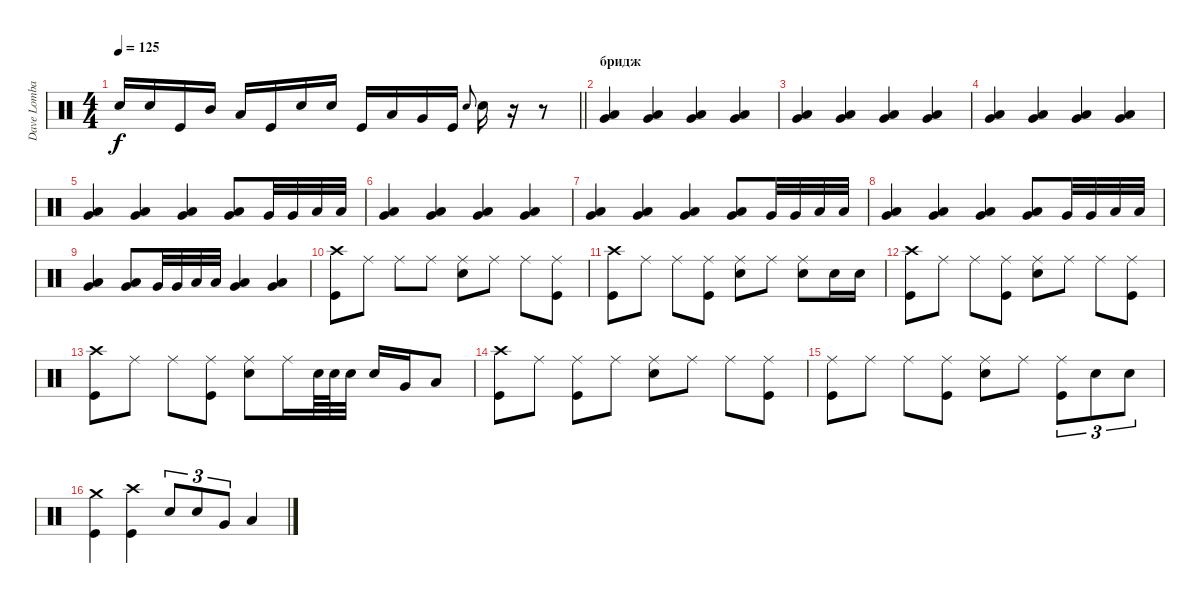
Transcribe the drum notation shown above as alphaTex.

\track ("Dave Lombardo" "Dave Lomba") {instrument percussion}
\staff {score}
\articulation defaults
\ts (4 4)
\tempo 125
\clef neutral
\barLineRight lightlight
\ks c "Snare (hit) 2".16{dy f} "Snare (hit) 2".16 "Kick (hit)".16 "Mid Tom (hit)".16 "Low Tom (hit)".16 "Kick (hit)".16 "Snare (hit) 2".16 "Snare (hit) 2".16 "Kick (hit)".16 "Low Tom (hit)".16 "Very Low Tom (hit)".16 "Kick (hit)".16 "Snare (hit) 2".8{gr onbeat} "Snare (hit) 2".16
r.16 r.8 |
\section ("" "бридж")
("Very Low Tom (hit)" "Low Floor Tom (hit)").4 ("Very Low Tom (hit)" "Low Floor Tom (hit)").4 ("Very Low Tom (hit)" "Low Floor Tom (hit)").4 ("Very Low Tom (hit)" "Low Floor Tom (hit)").4 |
("Very Low Tom (hit)" "Low Floor Tom (hit)").4 ("Very Low Tom (hit)" "Low Floor Tom (hit)").4 ("Very Low Tom (hit)" "Low Floor Tom (hit)").4 ("Very Low Tom (hit)" "Low Floor Tom (hit)").4 |
("Very Low Tom (hit)" "Low Floor Tom (hit)").4 ("Very Low Tom (hit)" "Low Floor Tom (hit)").4 ("Very Low Tom (hit)" "Low Floor Tom (hit)").4 ("Very Low Tom (hit)" "Low Floor Tom (hit)").4 |
("Very Low Tom (hit)" "Low Floor Tom (hit)").4 ("Very Low Tom (hit)" "Low Floor Tom (hit)").4 ("Very Low Tom (hit)" "Low Floor Tom (hit)").4 ("Very Low Tom (hit)" "Low Floor Tom (hit)").8 "Very Low Tom (hit)".32 "Very Low Tom (hit)".32 "Low Floor Tom (hit)".32 "Low Floor Tom (hit)".32 |
("Very Low Tom (hit)" "Low Floor Tom (hit)").4 ("Very Low Tom (hit)" "Low Floor Tom (hit)").4 ("Very Low Tom (hit)" "Low Floor Tom (hit)").4 ("Very Low Tom (hit)" "Low Floor Tom (hit)").4 |
("Very Low Tom (hit)" "Low Floor Tom (hit)").4 ("Very Low Tom (hit)" "Low Floor Tom (hit)").4 ("Very Low Tom (hit)" "Low Floor Tom (hit)").4 ("Very Low Tom (hit)" "Low Floor Tom (hit)").8 "Very Low Tom (hit)".32 "Very Low Tom (hit)".32 "Low Floor Tom (hit)".32 "Low Floor Tom (hit)".32 |
("Very Low Tom (hit)" "Low Floor Tom (hit)").4 ("Very Low Tom (hit)" "Low Floor Tom (hit)").4 ("Very Low Tom (hit)" "Low Floor Tom (hit)").4 ("Very Low Tom (hit)" "Low Floor Tom (hit)").8 "Very Low Tom (hit)".32 "Very Low Tom (hit)".32 "Low Floor Tom (hit)".32 "Low Floor Tom (hit)".32 |
("Very Low Tom (hit)" "Low Floor Tom (hit)").4 ("Very Low Tom (hit)" "Low Floor Tom (hit)").8 "Very Low Tom (hit)".32 "Very Low Tom (hit)".32 "Low Floor Tom (hit)".32 "Low Floor Tom (hit)".32 ("Very Low Tom (hit)" "Low Floor Tom (hit)").4 ("Very Low Tom (hit)" "Low Floor Tom (hit)").4 |
("Crash high (hit)" "Kick (hit)").8 "Ride (middle)".8 "Ride (middle)".8 "Ride (middle)".8 ("Ride (middle)" "Snare (hit) 2").8 "Ride (middle)".8 "Ride (middle)".8 ("Ride (middle)" "Kick (hit)").8 |
("Crash high (hit)" "Kick (hit)").8 "Ride (middle)".8 "Ride (middle)".8 ("Ride (middle)" "Kick (hit)").8 ("Ride (middle)" "Snare (hit) 2").8 "Ride (middle)".8 ("Ride (middle)" "Snare (hit) 2").8 "Snare (hit) 2".16 "Snare (hit) 2".16 |
("Crash high (hit)" "Kick (hit)").8 "Ride (middle)".8 "Ride (middle)".8 ("Ride (middle)" "Kick (hit)").8 ("Ride (middle)" "Snare (hit) 2").8 "Ride (middle)".8 "Ride (middle)".8 ("Ride (middle)" "Kick (hit)").8 |
("Crash high (hit)" "Kick (hit)").8 "Ride (middle)".8 "Ride (middle)".8 ("Ride (middle)" "Kick (hit)").8 ("Ride (middle)" "Snare (hit) 2").8 "Ride (middle)".16 "Snare (hit) 2".64 "Snare (hit) 2".64 "Snare (hit) 2".32 "Snare (hit) 2".16 "Very Low Tom (hit)".16 "Low Floor Tom (hit)".8 |
("Crash high (hit)" "Kick (hit)").8 "Ride (middle)".8 ("Ride (middle)" "Kick (hit)").8 "Ride (middle)".8 ("Ride (middle)" "Snare (hit) 2").8 "Ride (middle)".8 "Ride (middle)".8 ("Ride (middle)" "Kick (hit)").8 |
("Ride (middle)" "Kick (hit)").8 "Ride (middle)".8 "Ride (middle)".8 ("Ride (middle)" "Kick (hit)").8 ("Ride (middle)" "Snare (hit) 2").8 "Ride (middle)".8 ("Ride (middle)" "Kick (hit)").8{tu (3 2)} "Snare (hit) 2".8{tu (3 2)} "Snare (hit) 2".8{tu (3 2)} |
("Crash medium (hit)" "Kick (hit)").4 ("Crash high (hit)" "Kick (hit)").4 "Snare (hit) 2".8{tu (3 2)} "Snare (hit) 2".8{tu (3 2)} "Very Low Tom (hit)".8{tu (3 2)} "Low Floor Tom (hit)".4
